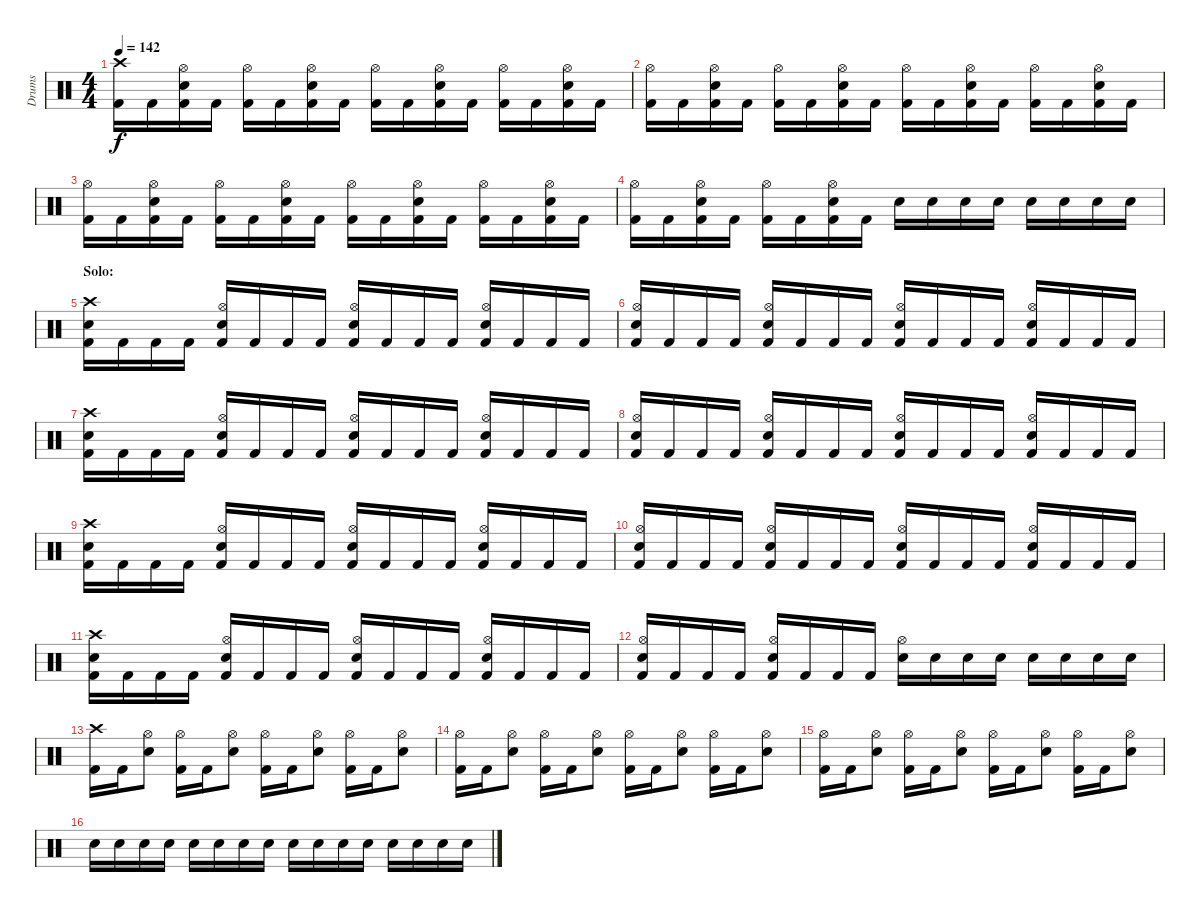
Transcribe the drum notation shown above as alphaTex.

\track ("Drums" "Drums") {instrument percussion}
\staff {score}
\articulation defaults
\ts (4 4)
\tempo 142
\clef neutral
\ks c
("Crash high (hit)" "Kick (hit) 2").16{dy f} "Kick (hit) 2".16 ("Hi-Hat (open)" "Electric Snare (hit)" "Kick (hit) 2").16 "Kick (hit) 2".16 ("Hi-Hat (open)" "Kick (hit) 2").16 "Kick (hit) 2".16 ("Hi-Hat (open)" "Electric Snare (hit)" "Kick (hit) 2").16 "Kick (hit) 2".16 ("Hi-Hat (open)" "Kick (hit) 2").16 "Kick (hit) 2".16 ("Hi-Hat (open)" "Electric Snare (hit)" "Kick (hit) 2").16 "Kick (hit) 2".16 ("Hi-Hat (open)" "Kick (hit) 2").16 "Kick (hit) 2".16 ("Hi-Hat (open)" "Electric Snare (hit)" "Kick (hit) 2").16 "Kick (hit) 2".16 |
("Hi-Hat (open)" "Kick (hit) 2").16 "Kick (hit) 2".16 ("Hi-Hat (open)" "Electric Snare (hit)" "Kick (hit) 2").16 "Kick (hit) 2".16 ("Hi-Hat (open)" "Kick (hit) 2").16 "Kick (hit) 2".16 ("Hi-Hat (open)" "Electric Snare (hit)" "Kick (hit) 2").16 "Kick (hit) 2".16 ("Hi-Hat (open)" "Kick (hit) 2").16 "Kick (hit) 2".16 ("Hi-Hat (open)" "Electric Snare (hit)" "Kick (hit) 2").16 "Kick (hit) 2".16 ("Hi-Hat (open)" "Kick (hit) 2").16 "Kick (hit) 2".16 ("Hi-Hat (open)" "Electric Snare (hit)" "Kick (hit) 2").16 "Kick (hit) 2".16 |
("Hi-Hat (open)" "Kick (hit) 2").16 "Kick (hit) 2".16 ("Hi-Hat (open)" "Electric Snare (hit)" "Kick (hit) 2").16 "Kick (hit) 2".16 ("Hi-Hat (open)" "Kick (hit) 2").16 "Kick (hit) 2".16 ("Hi-Hat (open)" "Electric Snare (hit)" "Kick (hit) 2").16 "Kick (hit) 2".16 ("Hi-Hat (open)" "Kick (hit) 2").16 "Kick (hit) 2".16 ("Hi-Hat (open)" "Electric Snare (hit)" "Kick (hit) 2").16 "Kick (hit) 2".16 ("Hi-Hat (open)" "Kick (hit) 2").16 "Kick (hit) 2".16 ("Hi-Hat (open)" "Electric Snare (hit)" "Kick (hit) 2").16 "Kick (hit) 2".16 |
("Hi-Hat (open)" "Kick (hit) 2").16 "Kick (hit) 2".16 ("Hi-Hat (open)" "Electric Snare (hit)" "Kick (hit) 2").16 "Kick (hit) 2".16 ("Hi-Hat (open)" "Kick (hit) 2").16 "Kick (hit) 2".16 ("Hi-Hat (open)" "Electric Snare (hit)" "Kick (hit) 2").16 "Kick (hit) 2".16 "Electric Snare (hit)".16 "Electric Snare (hit)".16 "Electric Snare (hit)".16 "Electric Snare (hit)".16 "Electric Snare (hit)".16 "Electric Snare (hit)".16 "Electric Snare (hit)".16 "Electric Snare (hit)".16 |
\section ("" "Solo:")
("Crash high (hit)" "Electric Snare (hit)" "Kick (hit) 2").16 "Kick (hit) 2".16 "Kick (hit) 2".16 "Kick (hit) 2".16 ("Hi-Hat (open)" "Electric Snare (hit)" "Kick (hit) 2").16 "Kick (hit) 2".16 "Kick (hit) 2".16 "Kick (hit) 2".16 ("Hi-Hat (open)" "Electric Snare (hit)" "Kick (hit) 2").16 "Kick (hit) 2".16 "Kick (hit) 2".16 "Kick (hit) 2".16 ("Hi-Hat (open)" "Electric Snare (hit)" "Kick (hit) 2").16 "Kick (hit) 2".16 "Kick (hit) 2".16 "Kick (hit) 2".16 |
("Hi-Hat (open)" "Electric Snare (hit)" "Kick (hit) 2").16 "Kick (hit) 2".16 "Kick (hit) 2".16 "Kick (hit) 2".16 ("Hi-Hat (open)" "Electric Snare (hit)" "Kick (hit) 2").16 "Kick (hit) 2".16 "Kick (hit) 2".16 "Kick (hit) 2".16 ("Hi-Hat (open)" "Electric Snare (hit)" "Kick (hit) 2").16 "Kick (hit) 2".16 "Kick (hit) 2".16 "Kick (hit) 2".16 ("Hi-Hat (open)" "Electric Snare (hit)" "Kick (hit) 2").16 "Kick (hit) 2".16 "Kick (hit) 2".16 "Kick (hit) 2".16 |
("Crash high (hit)" "Electric Snare (hit)" "Kick (hit) 2").16 "Kick (hit) 2".16 "Kick (hit) 2".16 "Kick (hit) 2".16 ("Hi-Hat (open)" "Electric Snare (hit)" "Kick (hit) 2").16 "Kick (hit) 2".16 "Kick (hit) 2".16 "Kick (hit) 2".16 ("Hi-Hat (open)" "Electric Snare (hit)" "Kick (hit) 2").16 "Kick (hit) 2".16 "Kick (hit) 2".16 "Kick (hit) 2".16 ("Hi-Hat (open)" "Electric Snare (hit)" "Kick (hit) 2").16 "Kick (hit) 2".16 "Kick (hit) 2".16 "Kick (hit) 2".16 |
("Hi-Hat (open)" "Electric Snare (hit)" "Kick (hit) 2").16 "Kick (hit) 2".16 "Kick (hit) 2".16 "Kick (hit) 2".16 ("Hi-Hat (open)" "Electric Snare (hit)" "Kick (hit) 2").16 "Kick (hit) 2".16 "Kick (hit) 2".16 "Kick (hit) 2".16 ("Hi-Hat (open)" "Electric Snare (hit)" "Kick (hit) 2").16 "Kick (hit) 2".16 "Kick (hit) 2".16 "Kick (hit) 2".16 ("Hi-Hat (open)" "Electric Snare (hit)" "Kick (hit) 2").16 "Kick (hit) 2".16 "Kick (hit) 2".16 "Kick (hit) 2".16 |
("Crash high (hit)" "Electric Snare (hit)" "Kick (hit) 2").16 "Kick (hit) 2".16 "Kick (hit) 2".16 "Kick (hit) 2".16 ("Hi-Hat (open)" "Electric Snare (hit)" "Kick (hit) 2").16 "Kick (hit) 2".16 "Kick (hit) 2".16 "Kick (hit) 2".16 ("Hi-Hat (open)" "Electric Snare (hit)" "Kick (hit) 2").16 "Kick (hit) 2".16 "Kick (hit) 2".16 "Kick (hit) 2".16 ("Hi-Hat (open)" "Electric Snare (hit)" "Kick (hit) 2").16 "Kick (hit) 2".16 "Kick (hit) 2".16 "Kick (hit) 2".16 |
("Hi-Hat (open)" "Electric Snare (hit)" "Kick (hit) 2").16 "Kick (hit) 2".16 "Kick (hit) 2".16 "Kick (hit) 2".16 ("Hi-Hat (open)" "Electric Snare (hit)" "Kick (hit) 2").16 "Kick (hit) 2".16 "Kick (hit) 2".16 "Kick (hit) 2".16 ("Hi-Hat (open)" "Electric Snare (hit)" "Kick (hit) 2").16 "Kick (hit) 2".16 "Kick (hit) 2".16 "Kick (hit) 2".16 ("Hi-Hat (open)" "Electric Snare (hit)" "Kick (hit) 2").16 "Kick (hit) 2".16 "Kick (hit) 2".16 "Kick (hit) 2".16 |
("Crash high (hit)" "Electric Snare (hit)" "Kick (hit) 2").16 "Kick (hit) 2".16 "Kick (hit) 2".16 "Kick (hit) 2".16 ("Hi-Hat (open)" "Electric Snare (hit)" "Kick (hit) 2").16 "Kick (hit) 2".16 "Kick (hit) 2".16 "Kick (hit) 2".16 ("Hi-Hat (open)" "Electric Snare (hit)" "Kick (hit) 2").16 "Kick (hit) 2".16 "Kick (hit) 2".16 "Kick (hit) 2".16 ("Hi-Hat (open)" "Electric Snare (hit)" "Kick (hit) 2").16 "Kick (hit) 2".16 "Kick (hit) 2".16 "Kick (hit) 2".16 |
("Hi-Hat (open)" "Electric Snare (hit)" "Kick (hit) 2").16 "Kick (hit) 2".16 "Kick (hit) 2".16 "Kick (hit) 2".16 ("Hi-Hat (open)" "Electric Snare (hit)" "Kick (hit) 2").16 "Kick (hit) 2".16 "Kick (hit) 2".16 "Kick (hit) 2".16 ("Hi-Hat (open)" "Electric Snare (hit)").16 "Electric Snare (hit)".16 "Electric Snare (hit)".16 "Electric Snare (hit)".16 "Electric Snare (hit)".16 "Electric Snare (hit)".16 "Electric Snare (hit)".16 "Electric Snare (hit)".16 |
("Crash high (hit)" "Kick (hit) 2").16 "Kick (hit) 2".16 ("Hi-Hat (open)" "Electric Snare (hit)").8 ("Hi-Hat (open)" "Kick (hit) 2").16 "Kick (hit) 2".16 ("Hi-Hat (open)" "Electric Snare (hit)").8 ("Hi-Hat (open)" "Kick (hit) 2").16 "Kick (hit) 2".16 ("Hi-Hat (open)" "Electric Snare (hit)").8 ("Hi-Hat (open)" "Kick (hit) 2").16 "Kick (hit) 2".16 ("Hi-Hat (open)" "Electric Snare (hit)").8 |
("Hi-Hat (open)" "Kick (hit) 2").16 "Kick (hit) 2".16 ("Hi-Hat (open)" "Electric Snare (hit)").8 ("Hi-Hat (open)" "Kick (hit) 2").16 "Kick (hit) 2".16 ("Hi-Hat (open)" "Electric Snare (hit)").8 ("Hi-Hat (open)" "Kick (hit) 2").16 "Kick (hit) 2".16 ("Hi-Hat (open)" "Electric Snare (hit)").8 ("Hi-Hat (open)" "Kick (hit) 2").16 "Kick (hit) 2".16 ("Hi-Hat (open)" "Electric Snare (hit)").8 |
("Hi-Hat (open)" "Kick (hit) 2").16 "Kick (hit) 2".16 ("Hi-Hat (open)" "Electric Snare (hit)").8 ("Hi-Hat (open)" "Kick (hit) 2").16 "Kick (hit) 2".16 ("Hi-Hat (open)" "Electric Snare (hit)").8 ("Hi-Hat (open)" "Kick (hit) 2").16 "Kick (hit) 2".16 ("Hi-Hat (open)" "Electric Snare (hit)").8 ("Hi-Hat (open)" "Kick (hit) 2").16 "Kick (hit) 2".16 ("Hi-Hat (open)" "Electric Snare (hit)").8 |
"Electric Snare (hit)".16 "Electric Snare (hit)".16 "Electric Snare (hit)".16 "Electric Snare (hit)".16 "Electric Snare (hit)".16 "Electric Snare (hit)".16 "Electric Snare (hit)".16 "Electric Snare (hit)".16 "Electric Snare (hit)".16 "Electric Snare (hit)".16 "Electric Snare (hit)".16 "Electric Snare (hit)".16 "Electric Snare (hit)".16 "Electric Snare (hit)".16 "Electric Snare (hit)".16 "Electric Snare (hit)".16
